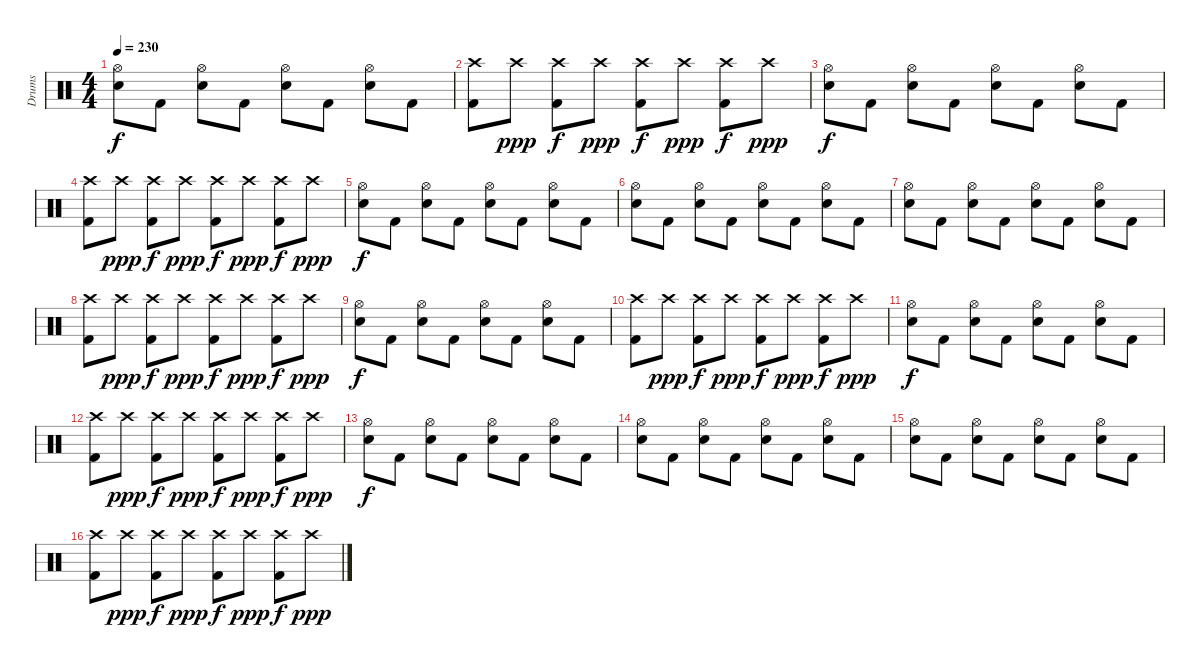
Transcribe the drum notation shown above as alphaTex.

\track ("Drums" "Drums") {instrument percussion}
\staff {score}
\articulation defaults
\ts (4 4)
\tempo 230
\clef neutral
\ks c
("Hi-Hat (open)" "Electric Snare (hit)").8{dy f} "Kick (hit) 2".8 ("Hi-Hat (open)" "Electric Snare (hit)").8 "Kick (hit) 2".8 ("Hi-Hat (open)" "Electric Snare (hit)").8 "Kick (hit) 2".8 ("Hi-Hat (open)" "Electric Snare (hit)").8 "Kick (hit) 2".8 |
("Crash high (hit)" "Kick (hit) 2").8 "Crash high (hit)".8{dy ppp} ("Crash high (hit)" "Kick (hit) 2").8{dy f} "Crash high (hit)".8{dy ppp} ("Crash high (hit)" "Kick (hit) 2").8{dy f} "Crash high (hit)".8{dy ppp} ("Crash high (hit)" "Kick (hit) 2").8{dy f} "Crash high (hit)".8{dy ppp} |
("Hi-Hat (open)" "Electric Snare (hit)").8{dy f} "Kick (hit) 2".8 ("Hi-Hat (open)" "Electric Snare (hit)").8 "Kick (hit) 2".8 ("Hi-Hat (open)" "Electric Snare (hit)").8 "Kick (hit) 2".8 ("Hi-Hat (open)" "Electric Snare (hit)").8 "Kick (hit) 2".8 |
("Crash high (hit)" "Kick (hit) 2").8 "Crash high (hit)".8{dy ppp} ("Crash high (hit)" "Kick (hit) 2").8{dy f} "Crash high (hit)".8{dy ppp} ("Crash high (hit)" "Kick (hit) 2").8{dy f} "Crash high (hit)".8{dy ppp} ("Crash high (hit)" "Kick (hit) 2").8{dy f} "Crash high (hit)".8{dy ppp} |
("Hi-Hat (open)" "Electric Snare (hit)").8{dy f} "Kick (hit) 2".8 ("Hi-Hat (open)" "Electric Snare (hit)").8 "Kick (hit) 2".8 ("Hi-Hat (open)" "Electric Snare (hit)").8 "Kick (hit) 2".8 ("Hi-Hat (open)" "Electric Snare (hit)").8 "Kick (hit) 2".8 |
("Hi-Hat (open)" "Electric Snare (hit)").8 "Kick (hit) 2".8 ("Hi-Hat (open)" "Electric Snare (hit)").8 "Kick (hit) 2".8 ("Hi-Hat (open)" "Electric Snare (hit)").8 "Kick (hit) 2".8 ("Hi-Hat (open)" "Electric Snare (hit)").8 "Kick (hit) 2".8 |
("Hi-Hat (open)" "Electric Snare (hit)").8 "Kick (hit) 2".8 ("Hi-Hat (open)" "Electric Snare (hit)").8 "Kick (hit) 2".8 ("Hi-Hat (open)" "Electric Snare (hit)").8 "Kick (hit) 2".8 ("Hi-Hat (open)" "Electric Snare (hit)").8 "Kick (hit) 2".8 |
("Crash high (hit)" "Kick (hit) 2").8 "Crash high (hit)".8{dy ppp} ("Crash high (hit)" "Kick (hit) 2").8{dy f} "Crash high (hit)".8{dy ppp} ("Crash high (hit)" "Kick (hit) 2").8{dy f} "Crash high (hit)".8{dy ppp} ("Crash high (hit)" "Kick (hit) 2").8{dy f} "Crash high (hit)".8{dy ppp} |
("Hi-Hat (open)" "Electric Snare (hit)").8{dy f} "Kick (hit) 2".8 ("Hi-Hat (open)" "Electric Snare (hit)").8 "Kick (hit) 2".8 ("Hi-Hat (open)" "Electric Snare (hit)").8 "Kick (hit) 2".8 ("Hi-Hat (open)" "Electric Snare (hit)").8 "Kick (hit) 2".8 |
("Crash high (hit)" "Kick (hit) 2").8 "Crash high (hit)".8{dy ppp} ("Crash high (hit)" "Kick (hit) 2").8{dy f} "Crash high (hit)".8{dy ppp} ("Crash high (hit)" "Kick (hit) 2").8{dy f} "Crash high (hit)".8{dy ppp} ("Crash high (hit)" "Kick (hit) 2").8{dy f} "Crash high (hit)".8{dy ppp} |
("Hi-Hat (open)" "Electric Snare (hit)").8{dy f} "Kick (hit) 2".8 ("Hi-Hat (open)" "Electric Snare (hit)").8 "Kick (hit) 2".8 ("Hi-Hat (open)" "Electric Snare (hit)").8 "Kick (hit) 2".8 ("Hi-Hat (open)" "Electric Snare (hit)").8 "Kick (hit) 2".8 |
("Crash high (hit)" "Kick (hit) 2").8 "Crash high (hit)".8{dy ppp} ("Crash high (hit)" "Kick (hit) 2").8{dy f} "Crash high (hit)".8{dy ppp} ("Crash high (hit)" "Kick (hit) 2").8{dy f} "Crash high (hit)".8{dy ppp} ("Crash high (hit)" "Kick (hit) 2").8{dy f} "Crash high (hit)".8{dy ppp} |
("Hi-Hat (open)" "Electric Snare (hit)").8{dy f} "Kick (hit) 2".8 ("Hi-Hat (open)" "Electric Snare (hit)").8 "Kick (hit) 2".8 ("Hi-Hat (open)" "Electric Snare (hit)").8 "Kick (hit) 2".8 ("Hi-Hat (open)" "Electric Snare (hit)").8 "Kick (hit) 2".8 |
("Hi-Hat (open)" "Electric Snare (hit)").8 "Kick (hit) 2".8 ("Hi-Hat (open)" "Electric Snare (hit)").8 "Kick (hit) 2".8 ("Hi-Hat (open)" "Electric Snare (hit)").8 "Kick (hit) 2".8 ("Hi-Hat (open)" "Electric Snare (hit)").8 "Kick (hit) 2".8 |
("Hi-Hat (open)" "Electric Snare (hit)").8 "Kick (hit) 2".8 ("Hi-Hat (open)" "Electric Snare (hit)").8 "Kick (hit) 2".8 ("Hi-Hat (open)" "Electric Snare (hit)").8 "Kick (hit) 2".8 ("Hi-Hat (open)" "Electric Snare (hit)").8 "Kick (hit) 2".8 |
("Crash high (hit)" "Kick (hit) 2").8 "Crash high (hit)".8{dy ppp} ("Crash high (hit)" "Kick (hit) 2").8{dy f} "Crash high (hit)".8{dy ppp} ("Crash high (hit)" "Kick (hit) 2").8{dy f} "Crash high (hit)".8{dy ppp} ("Crash high (hit)" "Kick (hit) 2").8{dy f} "Crash high (hit)".8{dy ppp}
